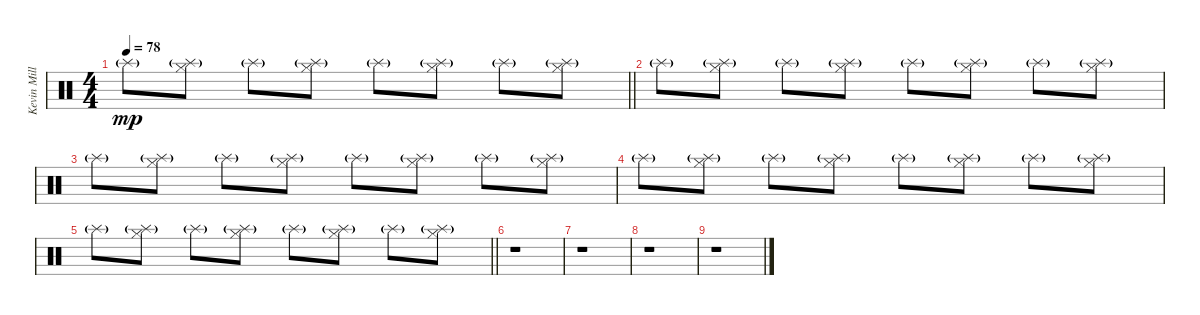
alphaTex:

\track ("Kevin Miller (Drums)" "Kevin Mill") {instrument percussion}
\staff {score}
\articulation defaults
\ts (4 4)
\tempo 78
\clef neutral
\barLineRight lightlight
\ks c "Splash (hit)"{g}.8{dy mp}
("Hi-Hat (closed)" "Splash (hit)"{g}).8 "Splash (hit)"{g}.8 ("Hi-Hat (closed)" "Splash (hit)"{g}).8 "Splash (hit)"{g}.8 ("Hi-Hat (closed)" "Splash (hit)"{g}).8 "Splash (hit)"{g}.8 ("Hi-Hat (closed)" "Splash (hit)"{g}).8 |
"Splash (hit)"{g}.8 ("Hi-Hat (closed)" "Splash (hit)"{g}).8 "Splash (hit)"{g}.8 ("Hi-Hat (closed)" "Splash (hit)"{g}).8 "Splash (hit)"{g}.8 ("Hi-Hat (closed)" "Splash (hit)"{g}).8 "Splash (hit)"{g}.8 ("Hi-Hat (closed)" "Splash (hit)"{g}).8 |
"Splash (hit)"{g}.8 ("Hi-Hat (closed)" "Splash (hit)"{g}).8 "Splash (hit)"{g}.8 ("Hi-Hat (closed)" "Splash (hit)"{g}).8 "Splash (hit)"{g}.8 ("Hi-Hat (closed)" "Splash (hit)"{g}).8 "Splash (hit)"{g}.8 ("Hi-Hat (closed)" "Splash (hit)"{g}).8 |
"Splash (hit)"{g}.8 ("Hi-Hat (closed)" "Splash (hit)"{g}).8 "Splash (hit)"{g}.8 ("Hi-Hat (closed)" "Splash (hit)"{g}).8 "Splash (hit)"{g}.8 ("Hi-Hat (closed)" "Splash (hit)"{g}).8 "Splash (hit)"{g}.8 ("Hi-Hat (closed)" "Splash (hit)"{g}).8 |
\barLineRight lightlight "Splash (hit)"{g}.8
("Hi-Hat (closed)" "Splash (hit)"{g}).8 "Splash (hit)"{g}.8 ("Hi-Hat (closed)" "Splash (hit)"{g}).8 "Splash (hit)"{g}.8 ("Hi-Hat (closed)" "Splash (hit)"{g}).8 "Splash (hit)"{g}.8 ("Hi-Hat (closed)" "Splash (hit)"{g}).8 |
r.1 |
r.1 |
r.1 |
r.1
